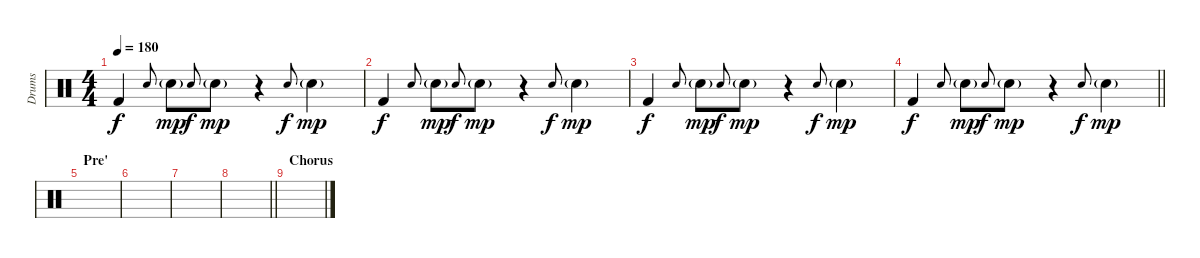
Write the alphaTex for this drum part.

\track ("Drums" "Drums") {instrument percussion}
\staff {score}
\articulation defaults
\ts (4 4)
\tempo 180
\clef neutral
\ks c "Kick (hit) 2".4{dy f} "Electric Snare (hit)".8{gr onbeat} "Electric Snare (hit)"{g}.8{dy mp} "Electric Snare (hit)".8{gr onbeat dy f} "Electric Snare (hit)"{g}.8{dy mp}
r.4 "Electric Snare (hit)".8{gr onbeat dy f} "Electric Snare (hit)"{g}.4{dy mp} |
"Kick (hit) 2".4{dy f} "Electric Snare (hit)".8{gr onbeat} "Electric Snare (hit)"{g}.8{dy mp} "Electric Snare (hit)".8{gr onbeat dy f} "Electric Snare (hit)"{g}.8{dy mp} r.4 "Electric Snare (hit)".8{gr onbeat dy f} "Electric Snare (hit)"{g}.4{dy mp} |
"Kick (hit) 2".4{dy f} "Electric Snare (hit)".8{gr onbeat} "Electric Snare (hit)"{g}.8{dy mp} "Electric Snare (hit)".8{gr onbeat dy f} "Electric Snare (hit)"{g}.8{dy mp} r.4 "Electric Snare (hit)".8{gr onbeat dy f} "Electric Snare (hit)"{g}.4{dy mp} |
\barLineRight lightlight "Kick (hit) 2".4{dy f} "Electric Snare (hit)".8{gr onbeat} "Electric Snare (hit)"{g}.8{dy mp} "Electric Snare (hit)".8{gr onbeat dy f} "Electric Snare (hit)"{g}.8{dy mp}
r.4 "Electric Snare (hit)".8{gr onbeat dy f} "Electric Snare (hit)"{g}.4{dy mp} |
\section ("" "Pre'")
|
|
|
\barLineRight lightlight
|
\section ("" "Chorus")
